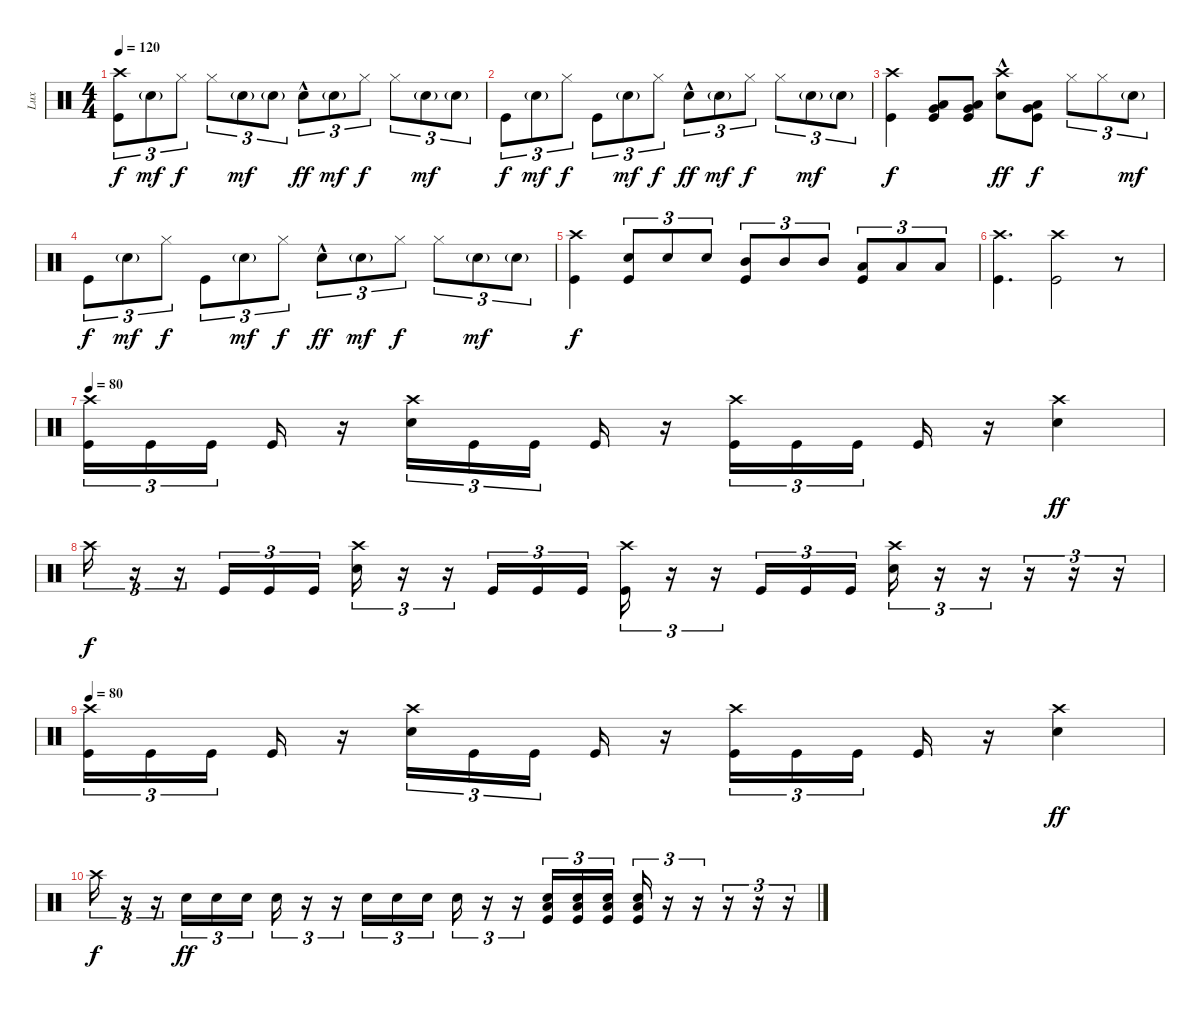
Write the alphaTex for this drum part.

\track ("Lux" "Lux") {instrument percussion bank 32}
\staff {score}
\articulation defaults
\ts (4 4)
\tempo 120
\clef neutral
\ks c
("Crash high (hit)" "Kick (hit)").8{tu (3 2) dy f} "Snare (hit) 2"{g}.8{tu (3 2) dy mf} "Hi-Hat (closed)".8{tu (3 2) dy f} "Hi-Hat (closed)".8{tu (3 2)} "Snare (hit) 2"{g}.8{tu (3 2) dy mf} "Snare (hit) 2"{g}.8{tu (3 2)} "Snare (hit) 2"{hac}.8{tu (3 2) dy ff} "Snare (hit) 2"{g}.8{tu (3 2) dy mf} "Hi-Hat (closed)".8{tu (3 2) dy f} "Hi-Hat (closed)".8{tu (3 2)} "Snare (hit) 2"{g}.8{tu (3 2) dy mf} "Snare (hit) 2"{g}.8{tu (3 2)} |
"Kick (hit)".8{tu (3 2) dy f} "Snare (hit) 2"{g}.8{tu (3 2) dy mf} "Hi-Hat (closed)".8{tu (3 2) dy f} "Kick (hit)".8{tu (3 2)} "Snare (hit) 2"{g}.8{tu (3 2) dy mf} "Hi-Hat (closed)".8{tu (3 2) dy f} "Snare (hit) 2"{hac}.8{tu (3 2) dy ff} "Snare (hit) 2"{g}.8{tu (3 2) dy mf} "Hi-Hat (closed)".8{tu (3 2) dy f} "Hi-Hat (closed)".8{tu (3 2)} "Snare (hit) 2"{g}.8{tu (3 2) dy mf} "Snare (hit) 2"{g}.8{tu (3 2)} |
("Crash high (hit)" "Kick (hit)").4{dy f} ("Low Tom (hit)" "Very Low Tom (hit)" "Kick (hit)").8 ("Low Tom (hit)" "Very Low Tom (hit)" "Kick (hit)").8 ("Crash high (hit)" "Snare (hit) 2"{hac}).8{dy ff} ("Low Tom (hit)" "Very Low Tom (hit)" "Kick (hit)").8{dy f} "Hi-Hat (closed)".8{tu (3 2)} "Hi-Hat (closed)".8{tu (3 2)} "Snare (hit) 2"{g}.8{tu (3 2) dy mf} |
"Kick (hit)".8{tu (3 2) dy f} "Snare (hit) 2"{g}.8{tu (3 2) dy mf} "Hi-Hat (closed)".8{tu (3 2) dy f} "Kick (hit)".8{tu (3 2)} "Snare (hit) 2"{g}.8{tu (3 2) dy mf} "Hi-Hat (closed)".8{tu (3 2) dy f} "Snare (hit) 2"{hac}.8{tu (3 2) dy ff} "Snare (hit) 2"{g}.8{tu (3 2) dy mf} "Hi-Hat (closed)".8{tu (3 2) dy f} "Hi-Hat (closed)".8{tu (3 2)} "Snare (hit) 2"{g}.8{tu (3 2) dy mf} "Snare (hit) 2"{g}.8{tu (3 2)} |
("Crash high (hit)" "Kick (hit)").4{dy f} ("Snare (hit) 2" "Kick (hit)").8{tu (3 2)} "Snare (hit) 2".8{tu (3 2)} "Snare (hit) 2".8{tu (3 2)} ("Mid Tom (hit)" "Kick (hit)").8{tu (3 2)} "Mid Tom (hit)".8{tu (3 2)} "Mid Tom (hit)".8{tu (3 2)} ("Low Tom (hit)" "Kick (hit)").8{tu (3 2)} "Low Tom (hit)".8{tu (3 2)} "Low Tom (hit)".8{tu (3 2)} |
("Crash high (hit)" "Kick (hit)").4{d} ("Crash high (hit)" "Kick (hit)").2 r.8 |
\tempo 80
("Crash high (hit)" "Kick (hit)").16{tu (3 2)} "Kick (hit)".16{tu (3 2)} "Kick (hit)".16{tu (3 2) beam splitsecondary} "Kick (hit)".16 r.16 ("Crash high (hit)" "Snare (hit) 2").16{tu (3 2)} "Kick (hit)".16{tu (3 2)} "Kick (hit)".16{tu (3 2) beam splitsecondary} "Kick (hit)".16 r.16 ("Crash high (hit)" "Kick (hit)").16{tu (3 2)} "Kick (hit)".16{tu (3 2)} "Kick (hit)".16{tu (3 2) beam splitsecondary} "Kick (hit)".16 r.16 ("Crash high (hit)" "Snare (hit) 2").4{dy ff} |
"Crash high (hit)".16{tu (3 2) dy f} r.16{tu (3 2)} r.16{tu (3 2)} "Kick (hit)".16{tu (3 2)} "Kick (hit)".16{tu (3 2)} "Kick (hit)".16{tu (3 2)} ("Crash high (hit)" "Snare (hit) 2").16{tu (3 2)} r.16{tu (3 2)} r.16{tu (3 2)} "Kick (hit)".16{tu (3 2)} "Kick (hit)".16{tu (3 2)} "Kick (hit)".16{tu (3 2)} ("Crash high (hit)" "Kick (hit)").16{tu (3 2)} r.16{tu (3 2)} r.16{tu (3 2)} "Kick (hit)".16{tu (3 2)} "Kick (hit)".16{tu (3 2)} "Kick (hit)".16{tu (3 2)} ("Crash high (hit)" "Snare (hit) 2").16{tu (3 2)} r.16{tu (3 2)} r.16{tu (3 2)} r.16{tu (3 2)} r.16{tu (3 2)} r.16{tu (3 2)} |
\tempo 80
("Crash high (hit)" "Kick (hit)").16{tu (3 2)} "Kick (hit)".16{tu (3 2)} "Kick (hit)".16{tu (3 2) beam splitsecondary} "Kick (hit)".16 r.16 ("Crash high (hit)" "Snare (hit) 2").16{tu (3 2)} "Kick (hit)".16{tu (3 2)} "Kick (hit)".16{tu (3 2) beam splitsecondary} "Kick (hit)".16 r.16 ("Crash high (hit)" "Kick (hit)").16{tu (3 2)} "Kick (hit)".16{tu (3 2)} "Kick (hit)".16{tu (3 2) beam splitsecondary} "Kick (hit)".16 r.16 ("Crash high (hit)" "Snare (hit) 2").4{dy ff} |
"Crash high (hit)".16{tu (3 2) dy f} r.16{tu (3 2)} r.16{tu (3 2)} "Snare (hit) 2".16{tu (3 2) dy ff} "Snare (hit) 2".16{tu (3 2)} "Snare (hit) 2".16{tu (3 2)} "Snare (hit) 2".16{tu (3 2)} r.16{tu (3 2)} r.16{tu (3 2)} "Snare (hit) 2".16{tu (3 2)} "Snare (hit) 2".16{tu (3 2)} "Snare (hit) 2".16{tu (3 2)} "Snare (hit) 2".16{tu (3 2)} r.16{tu (3 2)} r.16{tu (3 2)} ("Low Floor Tom (hit)" "Snare (hit) 2" "Kick (hit)").16{tu (3 2)} ("Low Floor Tom (hit)" "Snare (hit) 2" "Kick (hit)").16{tu (3 2)} ("Low Floor Tom (hit)" "Snare (hit) 2" "Kick (hit)").16{tu (3 2)} ("Low Floor Tom (hit)" "Snare (hit) 2" "Kick (hit)").16{tu (3 2)} r.16{tu (3 2)} r.16{tu (3 2)} r.16{tu (3 2)} r.16{tu (3 2)} r.16{tu (3 2)}
